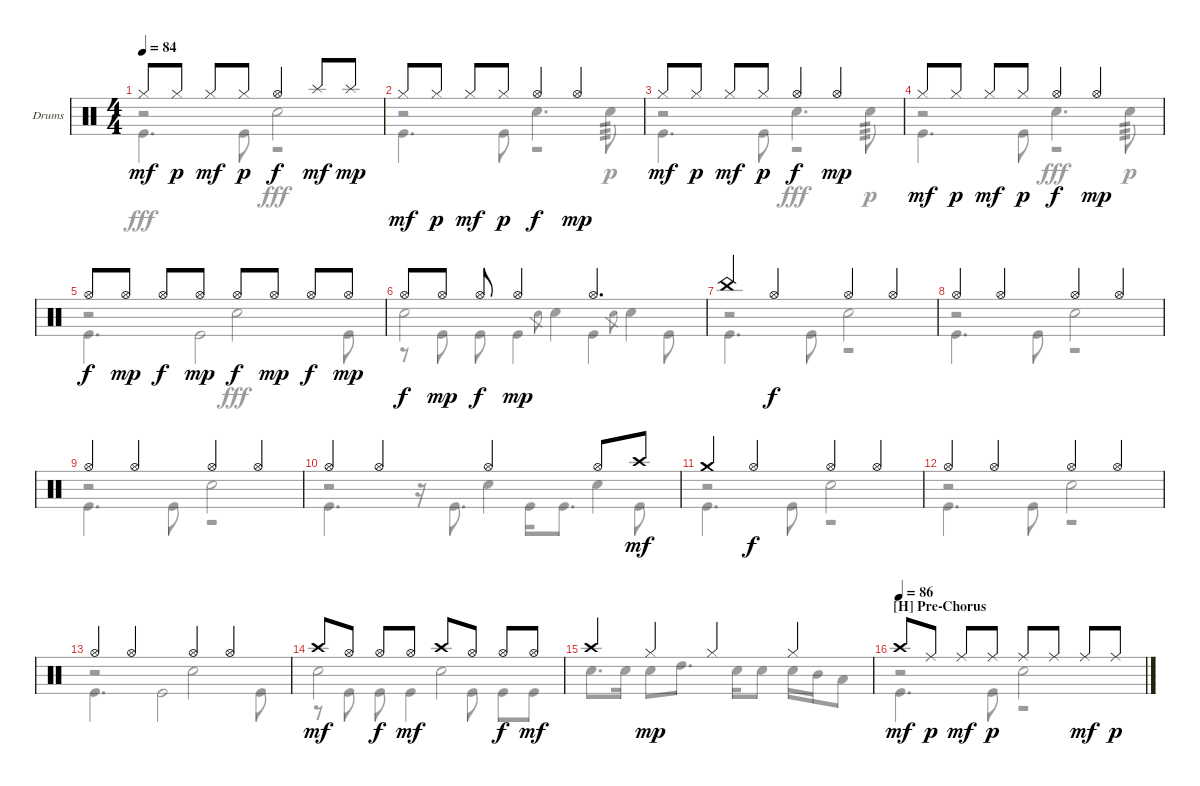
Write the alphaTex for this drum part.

\defaultSystemsLayout 4
\bracketExtendMode groupsimilarinstruments
\firstSystemTrackNameOrientation horizontal
\otherSystemsTrackNameOrientation horizontal
\track ("Drumkit" "Drums") {instrument percussion}
\staff {score}
\articulation defaults
\voice
\ts (4 4)
\tempo 84
\clef neutral
\ks c "Hi-Hat (closed)".8{dy mf} "Hi-Hat (closed)".8{dy p} "Hi-Hat (closed)".8{dy mf} "Hi-Hat (closed)".8{dy p} "Hi-Hat (open)".4{dy f} "Splash (hit)".8{dy mf} "Splash (hit)".8{dy mp}
|
"Hi-Hat (closed)".8{dy mf} "Hi-Hat (closed)".8{dy p} "Hi-Hat (closed)".8{dy mf} "Hi-Hat (closed)".8{dy p} "Hi-Hat (open)".4{dy f} "Hi-Hat (open)".4{dy mp} |
"Hi-Hat (closed)".8{dy mf} "Hi-Hat (closed)".8{dy p} "Hi-Hat (closed)".8{dy mf} "Hi-Hat (closed)".8{dy p} "Hi-Hat (open)".4{dy f} "Hi-Hat (open)".4{dy mp} |
"Hi-Hat (closed)".8{dy mf} "Hi-Hat (closed)".8{dy p} "Hi-Hat (closed)".8{dy mf} "Hi-Hat (closed)".8{dy p} "Hi-Hat (open)".4{dy f} "Hi-Hat (open)".4{dy mp} |
"Hi-Hat (open)".8{dy f} "Hi-Hat (open)".8{dy mp} "Hi-Hat (open)".8{dy f} "Hi-Hat (open)".8{dy mp} "Hi-Hat (open)".8{dy f} "Hi-Hat (open)".8{dy mp} "Hi-Hat (open)".8{dy f} "Hi-Hat (open)".8{dy mp} |
"Hi-Hat (open)".8{dy f} "Hi-Hat (open)".8{dy mp} "Hi-Hat (open)".8{dy f} "Hi-Hat (open)".4{dy mp} "Hi-Hat (open)".4{d} |
"China (hit)".4 "Hi-Hat (open)".4{dy f} "Hi-Hat (open)".4 "Hi-Hat (open)".4 |
"Hi-Hat (open)".4 "Hi-Hat (open)".4 "Hi-Hat (open)".4 "Hi-Hat (open)".4 |
"Hi-Hat (open)".4 "Hi-Hat (open)".4 "Hi-Hat (open)".4 "Hi-Hat (open)".4 |
"Hi-Hat (open)".4 "Hi-Hat (open)".4 "Hi-Hat (open)".4 "Hi-Hat (open)".8 "Crash high (hit)".8{dy mf} |
"Crash medium (hit)".4 "Hi-Hat (open)".4{dy f} "Hi-Hat (open)".4 "Hi-Hat (open)".4 |
"Hi-Hat (open)".4 "Hi-Hat (open)".4 "Hi-Hat (open)".4 "Hi-Hat (open)".4 |
"Hi-Hat (open)".4 "Hi-Hat (open)".4 "Hi-Hat (open)".4 "Hi-Hat (open)".4 |
"Crash high (hit)".8{dy mf} "Hi-Hat (open)".8 "Hi-Hat (open)".8{dy f} "Hi-Hat (open)".8{dy mf} "Crash high (hit)".8 "Hi-Hat (open)".8 "Hi-Hat (open)".8{dy f} "Hi-Hat (open)".8{dy mf} |
"Crash high (hit)".4 "Hi-Hat (closed)".4{dy mp} "Hi-Hat (closed)".4 "Hi-Hat (closed)".4 |
\section ("H" "Pre-Chorus")
\tempo (86)
"Crash high (hit)".8{dy mf} "Ride (middle)".8{dy p} "Ride (middle)".8{dy mf} "Ride (middle)".8{dy p} "Ride (middle)".8 "Ride (middle)".8 "Ride (middle)".8{dy mf} "Ride (middle)".8{dy p}
\voice
\clef neutral
\ottava regular
\simile none
\ks c
r.2{dy p} "Snare (hit) 2".2{dy fff} |
r.2 "Snare (hit) 2".4{d} "Snare (hit) 2".8{tp 3 dy p} |
r.2 "Snare (hit) 2".4{d dy fff} "Snare (hit) 2".8{tp 3 dy p} |
r.2 "Snare (hit) 2".4{d dy fff} "Snare (hit) 2".8{tp 3 dy p} |
r.2 "Snare (hit) 2".2{dy fff} |
"Snare (hit) 2".2 "Snare (hit) 2".8{gr} "Snare (hit) 2".4 "Snare (hit) 2".8{gr} "Snare (hit) 2".4 |
r.2 "Snare (hit) 2".2 |
r.2 "Snare (hit) 2".2 |
r.2 "Snare (hit) 2".2 |
r.2 "Snare (hit) 2".4 "Snare (hit) 2".4 |
r.2 "Snare (hit) 2".2 |
r.2 "Snare (hit) 2".2 |
r.2 "Snare (hit) 2".2 |
"Snare (hit) 2".2 "Snare (hit) 2".2 |
"Snare (hit) 2".8{d} "Snare (hit) 2".16 "Snare (hit) 2".8 "High Tom (hit)".8{d} "Snare (hit) 2".16 "Snare (hit) 2".8 "Snare (hit) 2".16 "Mid Tom (hit)".16 "Low Tom (hit)".8 |
r.2 "Snare (hit) 2".2
\voice
\clef neutral
\ottava regular
\simile none
\ks c "Kick (hit)".4{d dy fff} "Kick (hit)".8
r.2 |
"Kick (hit)".4{d} "Kick (hit)".8 r.2 |
"Kick (hit)".4{d} "Kick (hit)".8 r.2 |
"Kick (hit)".4{d} "Kick (hit)".8 r.2 |
"Kick (hit)".4{d} "Kick (hit)".2 "Kick (hit)".8 |
r.8 "Kick (hit)".8 "Kick (hit)".8 "Kick (hit)".4 "Kick (hit)".4 "Kick (hit)".8 |
"Kick (hit)".4{d} "Kick (hit)".8 r.2 |
"Kick (hit)".4{d} "Kick (hit)".8 r.2 |
"Kick (hit)".4{d} "Kick (hit)".8 r.2 |
"Kick (hit)".4{d} r.16 "Kick (hit)".8{d} "Kick (hit)".16 "Kick (hit)".8{d} "Kick (hit)".8 |
"Kick (hit)".4{d} "Kick (hit)".8 r.2 |
"Kick (hit)".4{d} "Kick (hit)".8 r.2 |
"Kick (hit)".4{d} "Kick (hit)".2 "Kick (hit)".8 |
r.8 "Kick (hit)".8 "Kick (hit)".8 "Kick (hit)".4 "Kick (hit)".8 "Kick (hit)".8 "Kick (hit)".8 |
|
"Kick (hit)".4{d} "Kick (hit)".8 r.2
